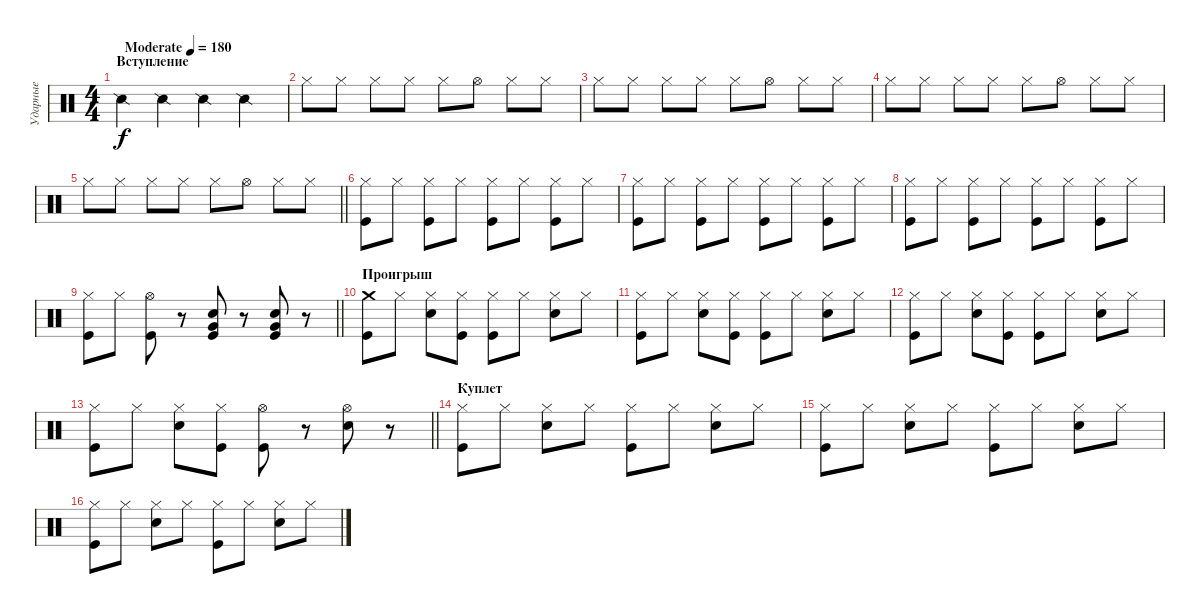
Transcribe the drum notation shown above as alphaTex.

\track ("Ударные" "Ударные") {instrument percussion}
\staff {score}
\articulation defaults
\ts (4 4)
\section ("" "Вступление")
\tempo (180 "Moderate")
\clef neutral
\ks c "Snare (side stick) 2".4{dy f} "Snare (side stick) 2".4 "Snare (side stick) 2".4 "Snare (side stick) 2".4
|
"Hi-Hat (closed)".8 "Hi-Hat (closed)".8 "Hi-Hat (closed)".8 "Hi-Hat (closed)".8 "Hi-Hat (closed)".8 "Hi-Hat (open)".8 "Hi-Hat (closed)".8 "Hi-Hat (closed)".8 |
"Hi-Hat (closed)".8 "Hi-Hat (closed)".8 "Hi-Hat (closed)".8 "Hi-Hat (closed)".8 "Hi-Hat (closed)".8 "Hi-Hat (open)".8 "Hi-Hat (closed)".8 "Hi-Hat (closed)".8 |
"Hi-Hat (closed)".8 "Hi-Hat (closed)".8 "Hi-Hat (closed)".8 "Hi-Hat (closed)".8 "Hi-Hat (closed)".8 "Hi-Hat (open)".8 "Hi-Hat (closed)".8 "Hi-Hat (closed)".8 |
\barLineRight lightlight "Hi-Hat (closed)".8 "Hi-Hat (closed)".8 "Hi-Hat (closed)".8 "Hi-Hat (closed)".8 "Hi-Hat (closed)".8 "Hi-Hat (open)".8 "Hi-Hat (closed)".8 "Hi-Hat (closed)".8
|
\section ("" " ")
("Hi-Hat (closed)" "Kick (hit)").8 "Hi-Hat (closed)".8 ("Hi-Hat (closed)" "Kick (hit)").8 "Hi-Hat (closed)".8 ("Hi-Hat (closed)" "Kick (hit)").8 "Hi-Hat (closed)".8 ("Hi-Hat (closed)" "Kick (hit)").8 "Hi-Hat (closed)".8 |
("Hi-Hat (closed)" "Kick (hit)").8 "Hi-Hat (closed)".8 ("Hi-Hat (closed)" "Kick (hit)").8 "Hi-Hat (closed)".8 ("Hi-Hat (closed)" "Kick (hit)").8 "Hi-Hat (closed)".8 ("Hi-Hat (closed)" "Kick (hit)").8 "Hi-Hat (closed)".8 |
("Hi-Hat (closed)" "Kick (hit)").8 "Hi-Hat (closed)".8 ("Hi-Hat (closed)" "Kick (hit)").8 "Hi-Hat (closed)".8 ("Hi-Hat (closed)" "Kick (hit)").8 "Hi-Hat (closed)".8 ("Hi-Hat (closed)" "Kick (hit)").8 "Hi-Hat (closed)".8 |
\barLineRight lightlight
("Hi-Hat (closed)" "Kick (hit)").8 "Hi-Hat (closed)".8 ("Hi-Hat (open)" "Kick (hit)").8 r.8 ("Very Low Tom (hit)" "Electric Snare (hit)" "Kick (hit)").8 r.8 ("Very Low Tom (hit)" "Electric Snare (hit)" "Kick (hit)").8 r.8 |
\section ("" "Проигрыш")
("Crash medium (hit)" "Kick (hit)").8 "Hi-Hat (closed)".8 ("Hi-Hat (closed)" "Electric Snare (hit)").8 ("Hi-Hat (closed)" "Kick (hit)").8 ("Hi-Hat (closed)" "Kick (hit)").8 "Hi-Hat (closed)".8 ("Hi-Hat (closed)" "Electric Snare (hit)").8 "Hi-Hat (closed)".8 |
("Hi-Hat (closed)" "Kick (hit)").8 "Hi-Hat (closed)".8 ("Hi-Hat (closed)" "Electric Snare (hit)").8 ("Hi-Hat (closed)" "Kick (hit)").8 ("Hi-Hat (closed)" "Kick (hit)").8 "Hi-Hat (closed)".8 ("Hi-Hat (closed)" "Electric Snare (hit)").8 "Hi-Hat (closed)".8 |
("Hi-Hat (closed)" "Kick (hit)").8 "Hi-Hat (closed)".8 ("Hi-Hat (closed)" "Electric Snare (hit)").8 ("Hi-Hat (closed)" "Kick (hit)").8 ("Hi-Hat (closed)" "Kick (hit)").8 "Hi-Hat (closed)".8 ("Hi-Hat (closed)" "Electric Snare (hit)").8 "Hi-Hat (closed)".8 |
\barLineRight lightlight
("Hi-Hat (closed)" "Kick (hit)").8 "Hi-Hat (closed)".8 ("Hi-Hat (closed)" "Electric Snare (hit)").8 ("Hi-Hat (closed)" "Kick (hit)").8 ("Hi-Hat (open)" "Kick (hit)").8 r.8 ("Hi-Hat (open)" "Electric Snare (hit)").8 r.8 |
\section ("" "Куплет")
("Hi-Hat (closed)" "Kick (hit)").8 "Hi-Hat (closed)".8 ("Hi-Hat (closed)" "Electric Snare (hit)").8 "Hi-Hat (closed)".8 ("Hi-Hat (closed)" "Kick (hit)").8 "Hi-Hat (closed)".8 ("Hi-Hat (closed)" "Electric Snare (hit)").8 "Hi-Hat (closed)".8 |
("Hi-Hat (closed)" "Kick (hit)").8 "Hi-Hat (closed)".8 ("Hi-Hat (closed)" "Electric Snare (hit)").8 "Hi-Hat (closed)".8 ("Hi-Hat (closed)" "Kick (hit)").8 "Hi-Hat (closed)".8 ("Hi-Hat (closed)" "Electric Snare (hit)").8 "Hi-Hat (closed)".8 |
("Hi-Hat (closed)" "Kick (hit)").8 "Hi-Hat (closed)".8 ("Hi-Hat (closed)" "Electric Snare (hit)").8 "Hi-Hat (closed)".8 ("Hi-Hat (closed)" "Kick (hit)").8 "Hi-Hat (closed)".8 ("Hi-Hat (closed)" "Electric Snare (hit)").8 "Hi-Hat (closed)".8
